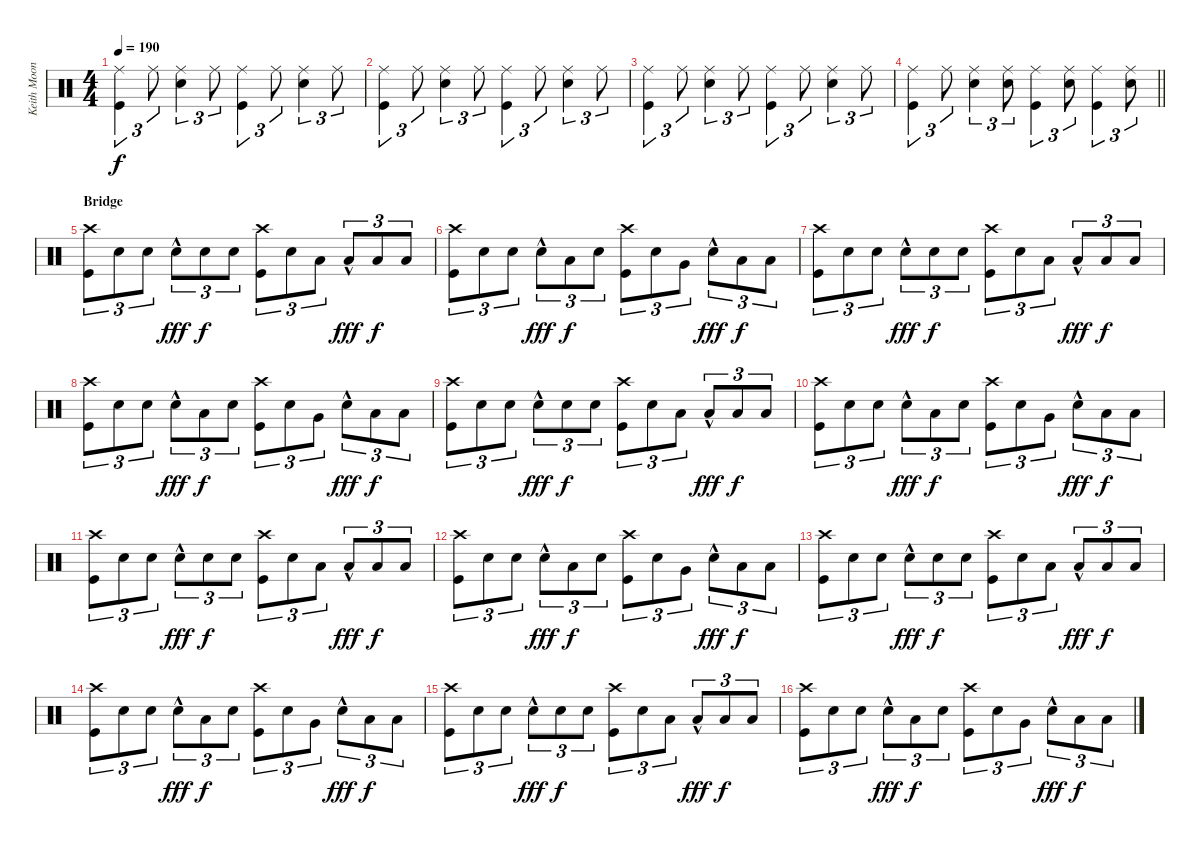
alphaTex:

\track ("Keith Moon" "Keith Moon") {instrument percussion}
\staff {score}
\articulation defaults
\ts (4 4)
\tempo 190
\clef neutral
\ks c
("Ride (middle)" "Kick (hit)").4{tu (3 2) dy f} "Ride (middle)".8{tu (3 2)} ("Ride (middle)" "Snare (hit) 2").4{tu (3 2)} "Ride (middle)".8{tu (3 2)} ("Ride (middle)" "Kick (hit)").4{tu (3 2)} "Ride (middle)".8{tu (3 2)} ("Ride (middle)" "Snare (hit) 2").4{tu (3 2)} "Ride (middle)".8{tu (3 2)} |
("Ride (middle)" "Kick (hit)").4{tu (3 2)} "Ride (middle)".8{tu (3 2)} ("Ride (middle)" "Snare (hit) 2").4{tu (3 2)} "Ride (middle)".8{tu (3 2)} ("Ride (middle)" "Kick (hit)").4{tu (3 2)} "Ride (middle)".8{tu (3 2)} ("Ride (middle)" "Snare (hit) 2").4{tu (3 2)} "Ride (middle)".8{tu (3 2)} |
("Ride (middle)" "Kick (hit)").4{tu (3 2)} "Ride (middle)".8{tu (3 2)} ("Ride (middle)" "Snare (hit) 2").4{tu (3 2)} "Ride (middle)".8{tu (3 2)} ("Ride (middle)" "Kick (hit)").4{tu (3 2)} "Ride (middle)".8{tu (3 2)} ("Ride (middle)" "Snare (hit) 2").4{tu (3 2)} "Ride (middle)".8{tu (3 2)} |
\barLineRight lightlight
("Ride (middle)" "Kick (hit)").4{tu (3 2)} "Ride (middle)".8{tu (3 2)} ("Ride (middle)" "Snare (hit) 2").4{tu (3 2)} ("Ride (middle)" "Snare (hit) 2").8{tu (3 2)} ("Ride (middle)" "Kick (hit)").4{tu (3 2)} ("Ride (middle)" "Snare (hit) 2").8{tu (3 2)} ("Ride (middle)" "Kick (hit)").4{tu (3 2)} ("Ride (middle)" "Snare (hit) 2").8{tu (3 2)} |
\section ("" "Bridge")
("Crash high (hit)" "Kick (hit)").8{tu (3 2)} "Snare (hit) 2".8{tu (3 2)} "Snare (hit) 2".8{tu (3 2)} "Snare (hit) 2"{hac}.8{tu (3 2) dy fff} "Snare (hit) 2".8{tu (3 2) dy f} "Snare (hit) 2".8{tu (3 2)} ("Crash high (hit)" "Kick (hit)").8{tu (3 2)} "Snare (hit) 2".8{tu (3 2)} "Low Tom (hit)".8{tu (3 2)} "Low Tom (hit)"{hac}.8{tu (3 2) dy fff} "Low Tom (hit)".8{tu (3 2) dy f} "Low Tom (hit)".8{tu (3 2)} |
("Crash high (hit)" "Kick (hit)").8{tu (3 2)} "Snare (hit) 2".8{tu (3 2)} "Snare (hit) 2".8{tu (3 2)} "Snare (hit) 2"{hac}.8{tu (3 2) dy fff} "Low Tom (hit)".8{tu (3 2) dy f} "Snare (hit) 2".8{tu (3 2)} ("Crash high (hit)" "Kick (hit)").8{tu (3 2)} "Snare (hit) 2".8{tu (3 2)} "Very Low Tom (hit)".8{tu (3 2)} "Snare (hit) 2"{hac}.8{tu (3 2) dy fff} "Low Tom (hit)".8{tu (3 2) dy f} "Low Tom (hit)".8{tu (3 2)} |
("Crash high (hit)" "Kick (hit)").8{tu (3 2)} "Snare (hit) 2".8{tu (3 2)} "Snare (hit) 2".8{tu (3 2)} "Snare (hit) 2"{hac}.8{tu (3 2) dy fff} "Snare (hit) 2".8{tu (3 2) dy f} "Snare (hit) 2".8{tu (3 2)} ("Crash high (hit)" "Kick (hit)").8{tu (3 2)} "Snare (hit) 2".8{tu (3 2)} "Low Tom (hit)".8{tu (3 2)} "Low Tom (hit)"{hac}.8{tu (3 2) dy fff} "Low Tom (hit)".8{tu (3 2) dy f} "Low Tom (hit)".8{tu (3 2)} |
("Crash high (hit)" "Kick (hit)").8{tu (3 2)} "Snare (hit) 2".8{tu (3 2)} "Snare (hit) 2".8{tu (3 2)} "Snare (hit) 2"{hac}.8{tu (3 2) dy fff} "Low Tom (hit)".8{tu (3 2) dy f} "Snare (hit) 2".8{tu (3 2)} ("Crash high (hit)" "Kick (hit)").8{tu (3 2)} "Snare (hit) 2".8{tu (3 2)} "Very Low Tom (hit)".8{tu (3 2)} "Snare (hit) 2"{hac}.8{tu (3 2) dy fff} "Low Tom (hit)".8{tu (3 2) dy f} "Low Tom (hit)".8{tu (3 2)} |
("Crash high (hit)" "Kick (hit)").8{tu (3 2)} "Snare (hit) 2".8{tu (3 2)} "Snare (hit) 2".8{tu (3 2)} "Snare (hit) 2"{hac}.8{tu (3 2) dy fff} "Snare (hit) 2".8{tu (3 2) dy f} "Snare (hit) 2".8{tu (3 2)} ("Crash high (hit)" "Kick (hit)").8{tu (3 2)} "Snare (hit) 2".8{tu (3 2)} "Low Tom (hit)".8{tu (3 2)} "Low Tom (hit)"{hac}.8{tu (3 2) dy fff} "Low Tom (hit)".8{tu (3 2) dy f} "Low Tom (hit)".8{tu (3 2)} |
("Crash high (hit)" "Kick (hit)").8{tu (3 2)} "Snare (hit) 2".8{tu (3 2)} "Snare (hit) 2".8{tu (3 2)} "Snare (hit) 2"{hac}.8{tu (3 2) dy fff} "Low Tom (hit)".8{tu (3 2) dy f} "Snare (hit) 2".8{tu (3 2)} ("Crash high (hit)" "Kick (hit)").8{tu (3 2)} "Snare (hit) 2".8{tu (3 2)} "Very Low Tom (hit)".8{tu (3 2)} "Snare (hit) 2"{hac}.8{tu (3 2) dy fff} "Low Tom (hit)".8{tu (3 2) dy f} "Low Tom (hit)".8{tu (3 2)} |
("Crash high (hit)" "Kick (hit)").8{tu (3 2)} "Snare (hit) 2".8{tu (3 2)} "Snare (hit) 2".8{tu (3 2)} "Snare (hit) 2"{hac}.8{tu (3 2) dy fff} "Snare (hit) 2".8{tu (3 2) dy f} "Snare (hit) 2".8{tu (3 2)} ("Crash high (hit)" "Kick (hit)").8{tu (3 2)} "Snare (hit) 2".8{tu (3 2)} "Low Tom (hit)".8{tu (3 2)} "Low Tom (hit)"{hac}.8{tu (3 2) dy fff} "Low Tom (hit)".8{tu (3 2) dy f} "Low Tom (hit)".8{tu (3 2)} |
("Crash high (hit)" "Kick (hit)").8{tu (3 2)} "Snare (hit) 2".8{tu (3 2)} "Snare (hit) 2".8{tu (3 2)} "Snare (hit) 2"{hac}.8{tu (3 2) dy fff} "Low Tom (hit)".8{tu (3 2) dy f} "Snare (hit) 2".8{tu (3 2)} ("Crash high (hit)" "Kick (hit)").8{tu (3 2)} "Snare (hit) 2".8{tu (3 2)} "Very Low Tom (hit)".8{tu (3 2)} "Snare (hit) 2"{hac}.8{tu (3 2) dy fff} "Low Tom (hit)".8{tu (3 2) dy f} "Low Tom (hit)".8{tu (3 2)} |
("Crash high (hit)" "Kick (hit)").8{tu (3 2)} "Snare (hit) 2".8{tu (3 2)} "Snare (hit) 2".8{tu (3 2)} "Snare (hit) 2"{hac}.8{tu (3 2) dy fff} "Snare (hit) 2".8{tu (3 2) dy f} "Snare (hit) 2".8{tu (3 2)} ("Crash high (hit)" "Kick (hit)").8{tu (3 2)} "Snare (hit) 2".8{tu (3 2)} "Low Tom (hit)".8{tu (3 2)} "Low Tom (hit)"{hac}.8{tu (3 2) dy fff} "Low Tom (hit)".8{tu (3 2) dy f} "Low Tom (hit)".8{tu (3 2)} |
("Crash high (hit)" "Kick (hit)").8{tu (3 2)} "Snare (hit) 2".8{tu (3 2)} "Snare (hit) 2".8{tu (3 2)} "Snare (hit) 2"{hac}.8{tu (3 2) dy fff} "Low Tom (hit)".8{tu (3 2) dy f} "Snare (hit) 2".8{tu (3 2)} ("Crash high (hit)" "Kick (hit)").8{tu (3 2)} "Snare (hit) 2".8{tu (3 2)} "Very Low Tom (hit)".8{tu (3 2)} "Snare (hit) 2"{hac}.8{tu (3 2) dy fff} "Low Tom (hit)".8{tu (3 2) dy f} "Low Tom (hit)".8{tu (3 2)} |
("Crash high (hit)" "Kick (hit)").8{tu (3 2)} "Snare (hit) 2".8{tu (3 2)} "Snare (hit) 2".8{tu (3 2)} "Snare (hit) 2"{hac}.8{tu (3 2) dy fff} "Snare (hit) 2".8{tu (3 2) dy f} "Snare (hit) 2".8{tu (3 2)} ("Crash high (hit)" "Kick (hit)").8{tu (3 2)} "Snare (hit) 2".8{tu (3 2)} "Low Tom (hit)".8{tu (3 2)} "Low Tom (hit)"{hac}.8{tu (3 2) dy fff} "Low Tom (hit)".8{tu (3 2) dy f} "Low Tom (hit)".8{tu (3 2)} |
("Crash high (hit)" "Kick (hit)").8{tu (3 2)} "Snare (hit) 2".8{tu (3 2)} "Snare (hit) 2".8{tu (3 2)} "Snare (hit) 2"{hac}.8{tu (3 2) dy fff} "Low Tom (hit)".8{tu (3 2) dy f} "Snare (hit) 2".8{tu (3 2)} ("Crash high (hit)" "Kick (hit)").8{tu (3 2)} "Snare (hit) 2".8{tu (3 2)} "Very Low Tom (hit)".8{tu (3 2)} "Snare (hit) 2"{hac}.8{tu (3 2) dy fff} "Low Tom (hit)".8{tu (3 2) dy f} "Low Tom (hit)".8{tu (3 2)}
